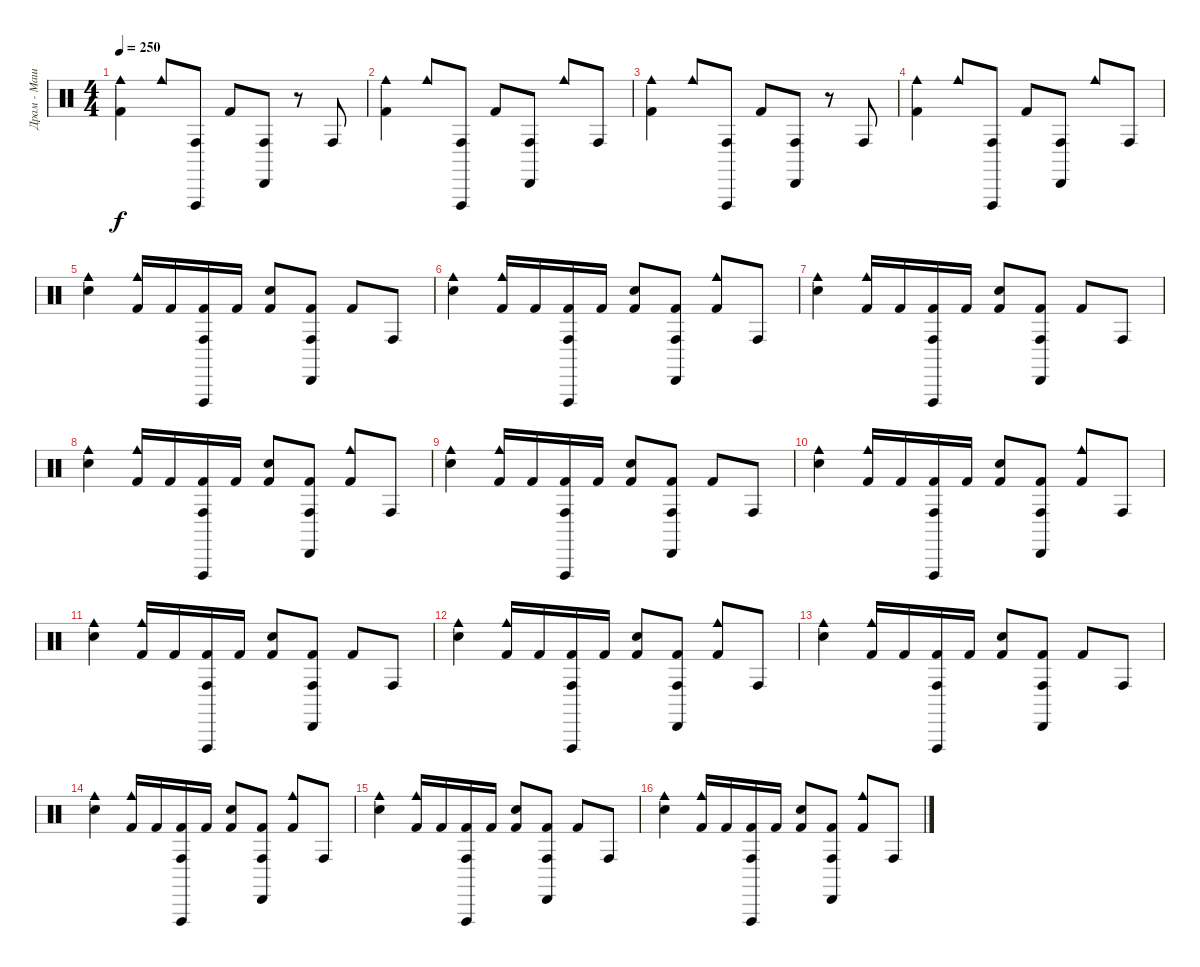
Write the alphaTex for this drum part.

\track ("Драм - Машина" "Драм - Маш") {instrument percussion}
\staff {score}
\articulation defaults
\ts (4 4)
\tempo 250
\clef neutral
\ks c
("Cowbell medium (hit)" "Kick (hit) 2").4{dy f} "Cowbell medium (hit)".8 ("Conga high (hit)" "Vibraslap (hit)").8 "Kick (hit) 2".8 ("Cabasa (hit)" "Conga high (hit)").8 r.8 "Conga high (hit)".8 |
("Cowbell medium (hit)" "Kick (hit) 2").4 "Cowbell medium (hit)".8 ("Conga high (hit)" "Vibraslap (hit)").8 "Kick (hit) 2".8 ("Cabasa (hit)" "Conga high (hit)").8 "Cowbell medium (hit)".8 "Conga high (hit)".8 |
("Cowbell medium (hit)" "Kick (hit) 2").4 "Cowbell medium (hit)".8 ("Conga high (hit)" "Vibraslap (hit)").8 "Kick (hit) 2".8 ("Cabasa (hit)" "Conga high (hit)").8 r.8 "Conga high (hit)".8 |
("Cowbell medium (hit)" "Kick (hit) 2").4 "Cowbell medium (hit)".8 ("Conga high (hit)" "Vibraslap (hit)").8 "Kick (hit) 2".8 ("Cabasa (hit)" "Conga high (hit)").8 "Cowbell medium (hit)".8 "Conga high (hit)".8 |
("Cowbell medium (hit)" "Electric Snare (hit)").4 ("Cowbell medium (hit)" "Kick (hit) 2").16 "Kick (hit) 2".16 ("Kick (hit) 2" "Conga high (hit)" "Vibraslap (hit)").16 "Kick (hit) 2".16 ("Electric Snare (hit)" "Kick (hit) 2").8 ("Cabasa (hit)" "Conga high (hit)" "Kick (hit) 2").8 "Kick (hit) 2".8 "Conga high (hit)".8 |
("Cowbell medium (hit)" "Electric Snare (hit)").4 ("Cowbell medium (hit)" "Kick (hit) 2").16 "Kick (hit) 2".16 ("Kick (hit) 2" "Conga high (hit)" "Vibraslap (hit)").16 "Kick (hit) 2".16 ("Electric Snare (hit)" "Kick (hit) 2").8 ("Cabasa (hit)" "Conga high (hit)" "Kick (hit) 2").8 ("Cowbell medium (hit)" "Kick (hit) 2").8 "Conga high (hit)".8 |
("Cowbell medium (hit)" "Electric Snare (hit)").4 ("Cowbell medium (hit)" "Kick (hit) 2").16 "Kick (hit) 2".16 ("Kick (hit) 2" "Conga high (hit)" "Vibraslap (hit)").16 "Kick (hit) 2".16 ("Electric Snare (hit)" "Kick (hit) 2").8 ("Cabasa (hit)" "Conga high (hit)" "Kick (hit) 2").8 "Kick (hit) 2".8 "Conga high (hit)".8 |
("Cowbell medium (hit)" "Electric Snare (hit)").4 ("Cowbell medium (hit)" "Kick (hit) 2").16 "Kick (hit) 2".16 ("Kick (hit) 2" "Conga high (hit)" "Vibraslap (hit)").16 "Kick (hit) 2".16 ("Electric Snare (hit)" "Kick (hit) 2").8 ("Cabasa (hit)" "Conga high (hit)" "Kick (hit) 2").8 ("Cowbell medium (hit)" "Kick (hit) 2").8 "Conga high (hit)".8 |
("Cowbell medium (hit)" "Electric Snare (hit)").4 ("Cowbell medium (hit)" "Kick (hit) 2").16 "Kick (hit) 2".16 ("Kick (hit) 2" "Conga high (hit)" "Vibraslap (hit)").16 "Kick (hit) 2".16 ("Electric Snare (hit)" "Kick (hit) 2").8 ("Cabasa (hit)" "Conga high (hit)" "Kick (hit) 2").8 "Kick (hit) 2".8 "Conga high (hit)".8 |
("Cowbell medium (hit)" "Electric Snare (hit)").4 ("Cowbell medium (hit)" "Kick (hit) 2").16 "Kick (hit) 2".16 ("Kick (hit) 2" "Conga high (hit)" "Vibraslap (hit)").16 "Kick (hit) 2".16 ("Electric Snare (hit)" "Kick (hit) 2").8 ("Cabasa (hit)" "Conga high (hit)" "Kick (hit) 2").8 ("Cowbell medium (hit)" "Kick (hit) 2").8 "Conga high (hit)".8 |
("Cowbell medium (hit)" "Electric Snare (hit)").4 ("Cowbell medium (hit)" "Kick (hit) 2").16 "Kick (hit) 2".16 ("Kick (hit) 2" "Conga high (hit)" "Vibraslap (hit)").16 "Kick (hit) 2".16 ("Electric Snare (hit)" "Kick (hit) 2").8 ("Cabasa (hit)" "Conga high (hit)" "Kick (hit) 2").8 "Kick (hit) 2".8 "Conga high (hit)".8 |
("Cowbell medium (hit)" "Electric Snare (hit)").4 ("Cowbell medium (hit)" "Kick (hit) 2").16 "Kick (hit) 2".16 ("Kick (hit) 2" "Conga high (hit)" "Vibraslap (hit)").16 "Kick (hit) 2".16 ("Electric Snare (hit)" "Kick (hit) 2").8 ("Cabasa (hit)" "Conga high (hit)" "Kick (hit) 2").8 ("Cowbell medium (hit)" "Kick (hit) 2").8 "Conga high (hit)".8 |
("Cowbell medium (hit)" "Electric Snare (hit)").4 ("Cowbell medium (hit)" "Kick (hit) 2").16 "Kick (hit) 2".16 ("Kick (hit) 2" "Conga high (hit)" "Vibraslap (hit)").16 "Kick (hit) 2".16 ("Electric Snare (hit)" "Kick (hit) 2").8 ("Cabasa (hit)" "Conga high (hit)" "Kick (hit) 2").8 "Kick (hit) 2".8 "Conga high (hit)".8 |
("Cowbell medium (hit)" "Electric Snare (hit)").4 ("Cowbell medium (hit)" "Kick (hit) 2").16 "Kick (hit) 2".16 ("Kick (hit) 2" "Conga high (hit)" "Vibraslap (hit)").16 "Kick (hit) 2".16 ("Electric Snare (hit)" "Kick (hit) 2").8 ("Cabasa (hit)" "Conga high (hit)" "Kick (hit) 2").8 ("Cowbell medium (hit)" "Kick (hit) 2").8 "Conga high (hit)".8 |
("Cowbell medium (hit)" "Electric Snare (hit)").4 ("Cowbell medium (hit)" "Kick (hit) 2").16 "Kick (hit) 2".16 ("Kick (hit) 2" "Conga high (hit)" "Vibraslap (hit)").16 "Kick (hit) 2".16 ("Electric Snare (hit)" "Kick (hit) 2").8 ("Cabasa (hit)" "Conga high (hit)" "Kick (hit) 2").8 "Kick (hit) 2".8 "Conga high (hit)".8 |
("Cowbell medium (hit)" "Electric Snare (hit)").4 ("Cowbell medium (hit)" "Kick (hit) 2").16 "Kick (hit) 2".16 ("Kick (hit) 2" "Conga high (hit)" "Vibraslap (hit)").16 "Kick (hit) 2".16 ("Electric Snare (hit)" "Kick (hit) 2").8 ("Cabasa (hit)" "Conga high (hit)" "Kick (hit) 2").8 ("Cowbell medium (hit)" "Kick (hit) 2").8 "Conga high (hit)".8
